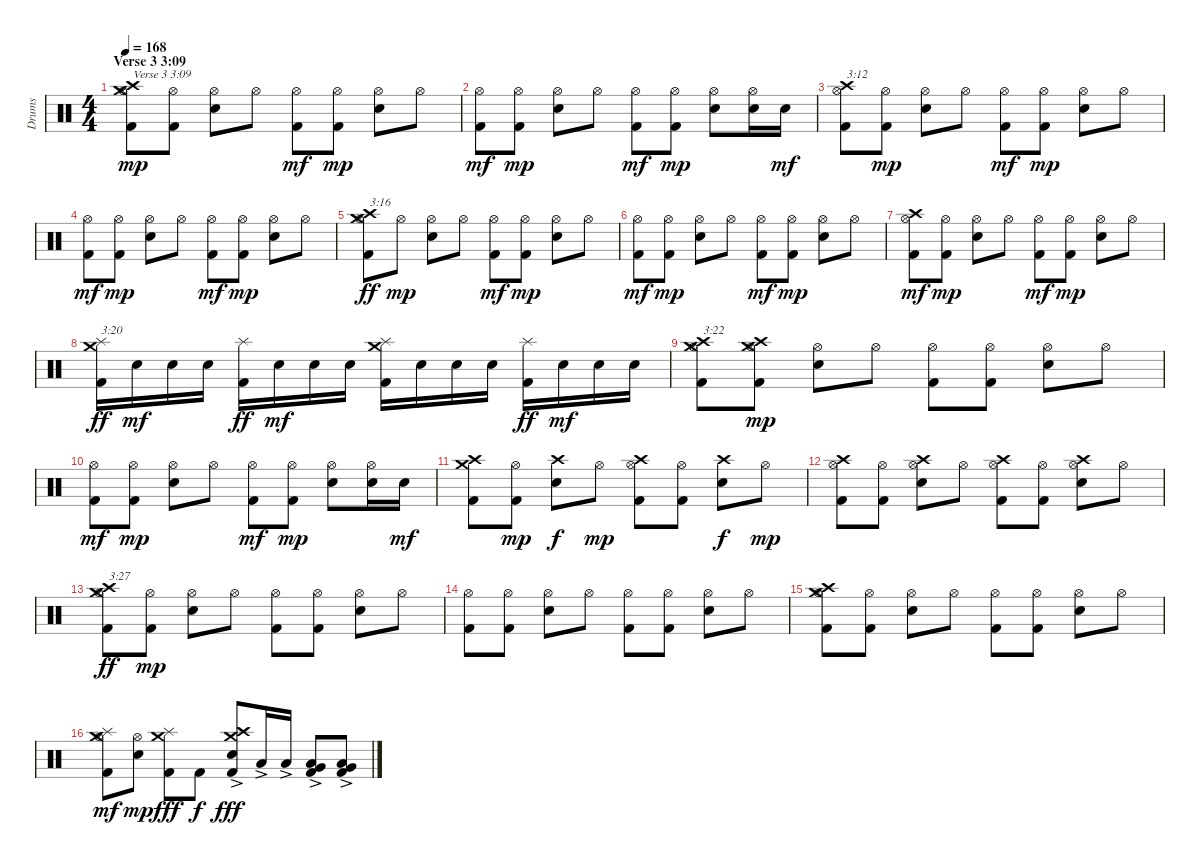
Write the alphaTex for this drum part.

\track ("Drums" "Drums") {instrument percussion}
\staff {score}
\articulation defaults
\ts (4 4)
\section ("" "Verse 3 3:09")
\tempo 168
\clef neutral
\ks c
("Kick (hit) 2" "Hi-Hat (open)" "Crash medium (hit)" "Crash high (hit)").8{txt "Verse 3 3:09" dy mp} ("Kick (hit) 2" "Hi-Hat (open)").8 ("Electric Snare (hit)" "Hi-Hat (open)").8 "Hi-Hat (open)".8 ("Kick (hit) 2" "Hi-Hat (open)").8{dy mf} ("Kick (hit) 2" "Hi-Hat (open)").8{dy mp} ("Electric Snare (hit)" "Hi-Hat (open)").8 "Hi-Hat (open)".8 |
("Kick (hit) 2" "Hi-Hat (open)").8{dy mf} ("Kick (hit) 2" "Hi-Hat (open)").8{dy mp} ("Electric Snare (hit)" "Hi-Hat (open)").8 "Hi-Hat (open)".8 ("Kick (hit) 2" "Hi-Hat (open)").8{dy mf} ("Kick (hit) 2" "Hi-Hat (open)").8{dy mp} ("Electric Snare (hit)" "Hi-Hat (open)").8 ("Electric Snare (hit)" "Hi-Hat (open)").16 "Electric Snare (hit)".16{dy mf} |
("Kick (hit) 2" "Hi-Hat (open)" "Crash high (hit)").8{txt "3:12"} ("Kick (hit) 2" "Hi-Hat (open)").8{dy mp} ("Electric Snare (hit)" "Hi-Hat (open)").8 "Hi-Hat (open)".8 ("Kick (hit) 2" "Hi-Hat (open)").8{dy mf} ("Kick (hit) 2" "Hi-Hat (open)").8{dy mp} ("Electric Snare (hit)" "Hi-Hat (open)").8 "Hi-Hat (open)".8 |
("Kick (hit) 2" "Hi-Hat (open)").8{dy mf} ("Kick (hit) 2" "Hi-Hat (open)").8{dy mp} ("Electric Snare (hit)" "Hi-Hat (open)").8 "Hi-Hat (open)".8 ("Kick (hit) 2" "Hi-Hat (open)").8{dy mf} ("Kick (hit) 2" "Hi-Hat (open)").8{dy mp} ("Electric Snare (hit)" "Hi-Hat (open)").8 "Hi-Hat (open)".8 |
("Kick (hit) 2" "Hi-Hat (open)" "Crash medium (hit)" "Crash high (hit)").8{txt "3:16" dy ff} "Hi-Hat (open)".8{dy mp} ("Electric Snare (hit)" "Hi-Hat (open)").8 "Hi-Hat (open)".8 ("Kick (hit) 2" "Hi-Hat (open)").8{dy mf} ("Kick (hit) 2" "Hi-Hat (open)").8{dy mp} ("Electric Snare (hit)" "Hi-Hat (open)").8 "Hi-Hat (open)".8 |
("Kick (hit) 2" "Hi-Hat (open)").8{dy mf} ("Kick (hit) 2" "Hi-Hat (open)").8{dy mp} ("Electric Snare (hit)" "Hi-Hat (open)").8 "Hi-Hat (open)".8 ("Kick (hit) 2" "Hi-Hat (open)").8{dy mf} ("Kick (hit) 2" "Hi-Hat (open)").8{dy mp} ("Electric Snare (hit)" "Hi-Hat (open)").8 "Hi-Hat (open)".8 |
("Kick (hit) 2" "Hi-Hat (open)" "Crash high (hit)").8{dy mf} ("Kick (hit) 2" "Hi-Hat (open)").8{dy mp} ("Electric Snare (hit)" "Hi-Hat (open)").8 "Hi-Hat (open)".8 ("Kick (hit) 2" "Hi-Hat (open)").8{dy mf} ("Kick (hit) 2" "Hi-Hat (open)").8{dy mp} ("Electric Snare (hit)" "Hi-Hat (open)").8 "Hi-Hat (open)".8 |
("Kick (hit) 2" "Splash (hit)" "Crash medium (hit)").16{txt "3:20" dy ff} "Electric Snare (hit)".16{dy mf} "Electric Snare (hit)".16 "Electric Snare (hit)".16 ("Kick (hit) 2" "Splash (hit)").16{dy ff} "Electric Snare (hit)".16{dy mf} "Electric Snare (hit)".16 "Electric Snare (hit)".16 ("Kick (hit) 2" "Splash (hit)" "Crash medium (hit)").16 "Electric Snare (hit)".16 "Electric Snare (hit)".16 "Electric Snare (hit)".16 ("Kick (hit) 2" "Splash (hit)").16{dy ff} "Electric Snare (hit)".16{dy mf} "Electric Snare (hit)".16 "Electric Snare (hit)".16 |
("Kick (hit) 2" "Hi-Hat (open)" "Crash medium (hit)" "Crash high (hit)").8{txt "3:22"} ("Kick (hit) 2" "Hi-Hat (open)" "Crash medium (hit)" "Crash high (hit)").8{dy mp} ("Electric Snare (hit)" "Hi-Hat (open)").8 "Hi-Hat (open)".8 ("Kick (hit) 2" "Hi-Hat (open)").8 ("Kick (hit) 2" "Hi-Hat (open)").8 ("Electric Snare (hit)" "Hi-Hat (open)").8 "Hi-Hat (open)".8 |
("Kick (hit) 2" "Hi-Hat (open)").8{dy mf} ("Kick (hit) 2" "Hi-Hat (open)").8{dy mp} ("Electric Snare (hit)" "Hi-Hat (open)").8 "Hi-Hat (open)".8 ("Kick (hit) 2" "Hi-Hat (open)").8{dy mf} ("Kick (hit) 2" "Hi-Hat (open)").8{dy mp} ("Electric Snare (hit)" "Hi-Hat (open)").8 ("Electric Snare (hit)" "Hi-Hat (open)").16 "Electric Snare (hit)".16{dy mf} |
("Kick (hit) 2" "Crash high (hit)" "Crash medium (hit)").8 ("Kick (hit) 2" "Hi-Hat (open)").8{dy mp} ("Electric Snare (hit)" "Crash high (hit)").8{dy f} "Hi-Hat (open)".8{dy mp} ("Kick (hit) 2" "Hi-Hat (open)" "Crash high (hit)").8 ("Kick (hit) 2" "Hi-Hat (open)").8 ("Electric Snare (hit)" "Crash high (hit)").8{dy f} "Hi-Hat (open)".8{dy mp} |
("Kick (hit) 2" "Hi-Hat (open)" "Crash high (hit)").8 ("Kick (hit) 2" "Hi-Hat (open)").8 ("Electric Snare (hit)" "Hi-Hat (open)" "Crash high (hit)").8 "Hi-Hat (open)".8 ("Kick (hit) 2" "Hi-Hat (open)" "Crash high (hit)").8 ("Kick (hit) 2" "Hi-Hat (open)").8 ("Electric Snare (hit)" "Hi-Hat (open)" "Crash high (hit)").8 "Hi-Hat (open)".8 |
("Kick (hit) 2" "Hi-Hat (open)" "Crash high (hit)" "Crash medium (hit)").8{txt "3:27" dy ff} ("Kick (hit) 2" "Hi-Hat (open)").8{dy mp} ("Electric Snare (hit)" "Hi-Hat (open)").8 "Hi-Hat (open)".8 ("Kick (hit) 2" "Hi-Hat (open)").8 ("Kick (hit) 2" "Hi-Hat (open)").8 ("Electric Snare (hit)" "Hi-Hat (open)").8 "Hi-Hat (open)".8 |
("Kick (hit) 2" "Hi-Hat (open)").8 ("Kick (hit) 2" "Hi-Hat (open)").8 ("Electric Snare (hit)" "Hi-Hat (open)").8 "Hi-Hat (open)".8 ("Kick (hit) 2" "Hi-Hat (open)").8 ("Kick (hit) 2" "Hi-Hat (open)").8 ("Electric Snare (hit)" "Hi-Hat (open)").8 "Hi-Hat (open)".8 |
("Kick (hit) 2" "Hi-Hat (open)" "Crash high (hit)" "Crash medium (hit)").8 ("Kick (hit) 2" "Hi-Hat (open)").8 ("Electric Snare (hit)" "Hi-Hat (open)").8 "Hi-Hat (open)".8 ("Kick (hit) 2" "Hi-Hat (open)").8 ("Kick (hit) 2" "Hi-Hat (open)").8 ("Electric Snare (hit)" "Hi-Hat (open)").8 "Hi-Hat (open)".8 |
("Kick (hit) 2" "Hi-Hat (open)" "Splash (hit)" "Crash medium (hit)").8{dy mf} ("Electric Snare (hit)" "Hi-Hat (open)").8{dy mp} ("Kick (hit) 2" "Splash (hit)" "Crash medium (hit)").8{dy fff} "Kick (hit) 2".8{dy f} ("Kick (hit) 2" "Electric Snare (hit)"{ac} "Crash medium (hit)" "Crash high (hit)").8{dy fff} "Low Tom (hit)"{ac}.16 "Low Tom (hit)"{ac}.16 ("Kick (hit) 2" "Low Tom (hit)"{ac} "Very Low Tom (hit)"{ac}).8 ("Kick (hit) 2" "Low Tom (hit)"{ac} "Very Low Tom (hit)"{ac}).8
